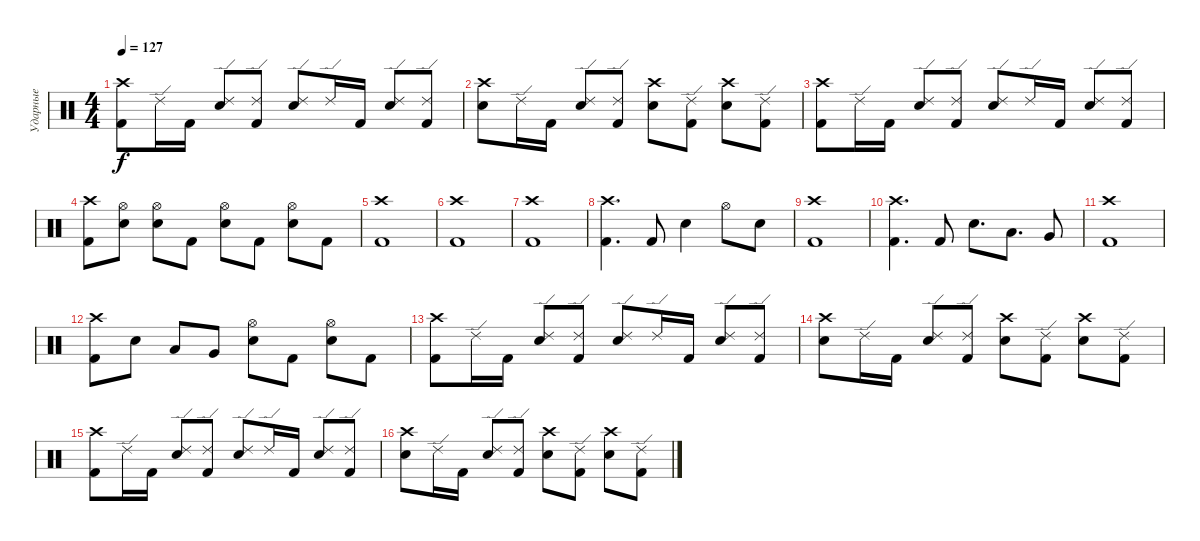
\track ("Ударные" "Ударные") {instrument percussion}
\staff {score}
\articulation defaults
\ts (4 4)
\tempo 127
\clef neutral
\ks c
("Kick (hit) 2" "Crash high (hit)").8{dy f} "Ride (edge) 2".16 "Kick (hit) 2".16 ("Electric Snare (hit)" "Ride (edge) 2").8 ("Kick (hit) 2" "Ride (edge) 2").8 ("Electric Snare (hit)" "Ride (edge) 2").8 "Ride (edge) 2".16 "Kick (hit) 2".16 ("Electric Snare (hit)" "Ride (edge) 2").8 ("Kick (hit) 2" "Ride (edge) 2").8 |
("Electric Snare (hit)" "Crash high (hit)").8 "Ride (edge) 2".16 "Kick (hit) 2".16 ("Electric Snare (hit)" "Ride (edge) 2").8 ("Kick (hit) 2" "Ride (edge) 2").8 ("Electric Snare (hit)" "Crash high (hit)").8 ("Kick (hit) 2" "Ride (edge) 2").8 ("Electric Snare (hit)" "Crash high (hit)").8 ("Kick (hit) 2" "Ride (edge) 2").8 |
("Kick (hit) 2" "Crash high (hit)").8 "Ride (edge) 2".16 "Kick (hit) 2".16 ("Electric Snare (hit)" "Ride (edge) 2").8 ("Kick (hit) 2" "Ride (edge) 2").8 ("Electric Snare (hit)" "Ride (edge) 2").8 "Ride (edge) 2".16 "Kick (hit) 2".16 ("Electric Snare (hit)" "Ride (edge) 2").8 ("Kick (hit) 2" "Ride (edge) 2").8 |
("Kick (hit) 2" "Crash high (hit)").8 ("Electric Snare (hit)" "Hi-Hat (open)").8 ("Electric Snare (hit)" "Hi-Hat (open)").8 "Kick (hit) 2".8 ("Electric Snare (hit)" "Hi-Hat (open)").8 "Kick (hit) 2".8 ("Electric Snare (hit)" "Hi-Hat (open)").8 "Kick (hit) 2".8 |
("Kick (hit) 2" "Crash high (hit)").1 |
("Kick (hit) 2" "Crash high (hit)").1 |
("Kick (hit) 2" "Crash high (hit)").1 |
("Kick (hit) 2" "Crash high (hit)").4{d} "Kick (hit) 2".8 "Electric Snare (hit)".4 "Hi-Hat (open)".8 "Electric Snare (hit)".8 |
("Kick (hit) 2" "Crash high (hit)").1 |
("Kick (hit) 2" "Crash high (hit)").4{d} "Kick (hit) 2".8 "Electric Snare (hit)".8{d} "Low Tom (hit)".8{d} "Very Low Tom (hit)".8 |
("Kick (hit) 2" "Crash high (hit)").1 |
("Kick (hit) 2" "Crash high (hit)").8 "Electric Snare (hit)".8 "Low Tom (hit)".8 "Very Low Tom (hit)".8 ("Electric Snare (hit)" "Hi-Hat (open)").8 "Kick (hit) 2".8 ("Electric Snare (hit)" "Hi-Hat (open)").8 "Kick (hit) 2".8 |
("Kick (hit) 2" "Crash high (hit)").8 "Ride (edge) 2".16 "Kick (hit) 2".16 ("Electric Snare (hit)" "Ride (edge) 2").8 ("Kick (hit) 2" "Ride (edge) 2").8 ("Electric Snare (hit)" "Ride (edge) 2").8 "Ride (edge) 2".16 "Kick (hit) 2".16 ("Electric Snare (hit)" "Ride (edge) 2").8 ("Kick (hit) 2" "Ride (edge) 2").8 |
("Electric Snare (hit)" "Crash high (hit)").8 "Ride (edge) 2".16 "Kick (hit) 2".16 ("Electric Snare (hit)" "Ride (edge) 2").8 ("Kick (hit) 2" "Ride (edge) 2").8 ("Electric Snare (hit)" "Crash high (hit)").8 ("Kick (hit) 2" "Ride (edge) 2").8 ("Electric Snare (hit)" "Crash high (hit)").8 ("Kick (hit) 2" "Ride (edge) 2").8 |
("Kick (hit) 2" "Crash high (hit)").8 "Ride (edge) 2".16 "Kick (hit) 2".16 ("Electric Snare (hit)" "Ride (edge) 2").8 ("Kick (hit) 2" "Ride (edge) 2").8 ("Electric Snare (hit)" "Ride (edge) 2").8 "Ride (edge) 2".16 "Kick (hit) 2".16 ("Electric Snare (hit)" "Ride (edge) 2").8 ("Kick (hit) 2" "Ride (edge) 2").8 |
("Electric Snare (hit)" "Crash high (hit)").8 "Ride (edge) 2".16 "Kick (hit) 2".16 ("Electric Snare (hit)" "Ride (edge) 2").8 ("Kick (hit) 2" "Ride (edge) 2").8 ("Electric Snare (hit)" "Crash high (hit)").8 ("Kick (hit) 2" "Ride (edge) 2").8 ("Electric Snare (hit)" "Crash high (hit)").8 ("Kick (hit) 2" "Ride (edge) 2").8
